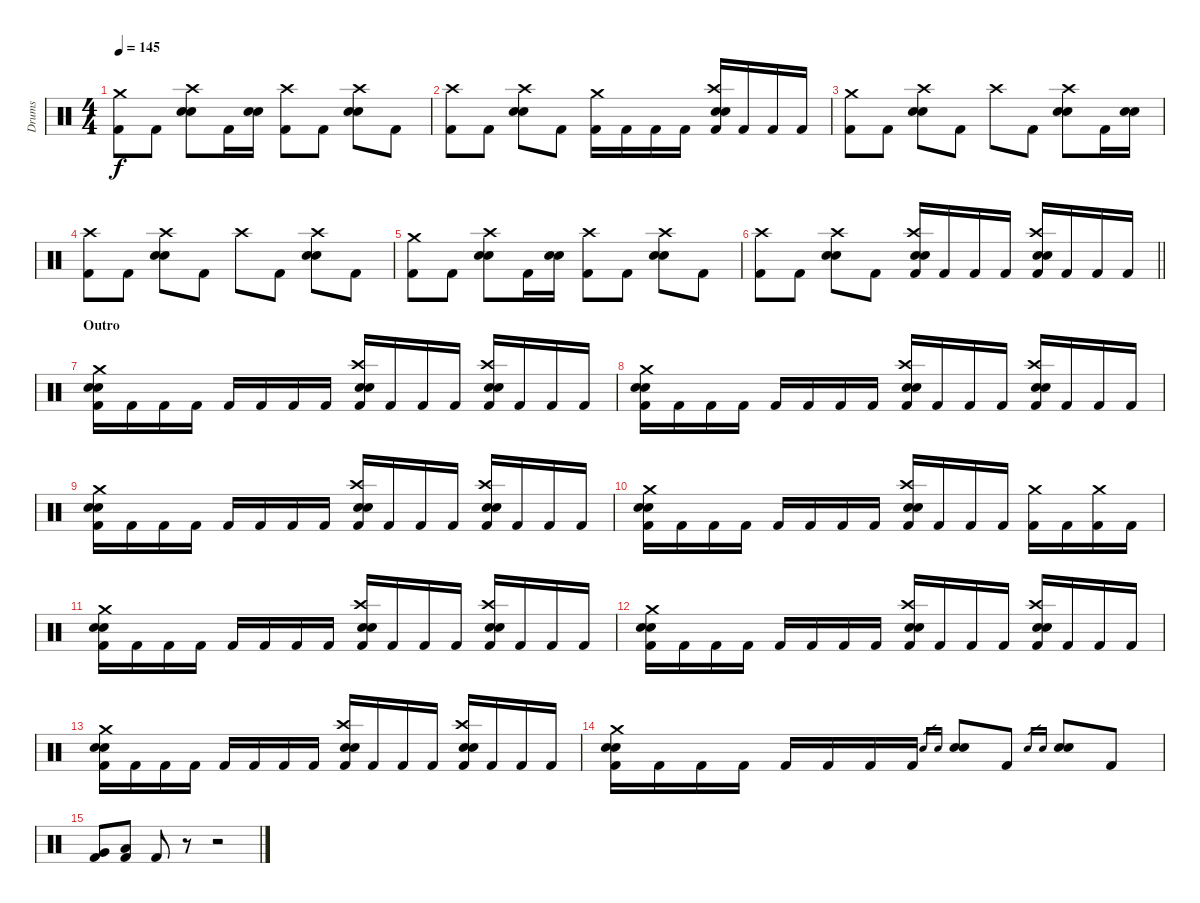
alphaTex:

\track ("Drums" "Drums") {instrument percussion}
\staff {score}
\articulation defaults
\ts (4 4)
\tempo 145
\clef neutral
\ks c
("Crash medium (hit)" "Kick (hit) 2").8{dy f} "Kick (hit) 2".8 ("Crash high (hit)" "Electric Snare (hit)" "Electric Snare (hit)").8 "Kick (hit) 2".16 ("Electric Snare (hit)" "Electric Snare (hit)").16 ("Crash high (hit)" "Kick (hit) 2").8 "Kick (hit) 2".8 ("Crash high (hit)" "Electric Snare (hit)" "Electric Snare (hit)").8 "Kick (hit) 2".8 |
("Crash high (hit)" "Kick (hit) 2").8 "Kick (hit) 2".8 ("Crash high (hit)" "Electric Snare (hit)" "Electric Snare (hit)").8 "Kick (hit) 2".8 ("Crash medium (hit)" "Kick (hit) 2").16 "Kick (hit) 2".16 "Kick (hit) 2".16 "Kick (hit) 2".16 ("Crash high (hit)" "Electric Snare (hit)" "Electric Snare (hit)" "Kick (hit) 2").16 "Kick (hit) 2".16 "Kick (hit) 2".16 "Kick (hit) 2".16 |
("Crash medium (hit)" "Kick (hit) 2").8 "Kick (hit) 2".8 ("Crash high (hit)" "Electric Snare (hit)" "Electric Snare (hit)").8 "Kick (hit) 2".8 "Crash high (hit)".8 "Kick (hit) 2".8 ("Crash high (hit)" "Electric Snare (hit)" "Electric Snare (hit)").8 "Kick (hit) 2".16 ("Electric Snare (hit)" "Electric Snare (hit)").16 |
("Crash high (hit)" "Kick (hit) 2").8 "Kick (hit) 2".8 ("Crash high (hit)" "Electric Snare (hit)" "Electric Snare (hit)").8 "Kick (hit) 2".8 "Crash high (hit)".8 "Kick (hit) 2".8 ("Crash high (hit)" "Electric Snare (hit)" "Electric Snare (hit)").8 "Kick (hit) 2".8 |
("Crash medium (hit)" "Kick (hit) 2").8 "Kick (hit) 2".8 ("Crash high (hit)" "Electric Snare (hit)" "Electric Snare (hit)").8 "Kick (hit) 2".16 ("Electric Snare (hit)" "Electric Snare (hit)").16 ("Crash high (hit)" "Kick (hit) 2").8 "Kick (hit) 2".8 ("Crash high (hit)" "Electric Snare (hit)" "Electric Snare (hit)").8 "Kick (hit) 2".8 |
\barLineRight lightlight
("Crash high (hit)" "Kick (hit) 2").8 "Kick (hit) 2".8 ("Crash high (hit)" "Electric Snare (hit)" "Electric Snare (hit)").8 "Kick (hit) 2".8 ("Crash high (hit)" "Electric Snare (hit)" "Electric Snare (hit)" "Kick (hit) 2").16 "Kick (hit) 2".16 "Kick (hit) 2".16 "Kick (hit) 2".16 ("Crash high (hit)" "Electric Snare (hit)" "Electric Snare (hit)" "Kick (hit) 2").16 "Kick (hit) 2".16 "Kick (hit) 2".16 "Kick (hit) 2".16 |
\section ("" "Outro")
("Crash medium (hit)" "Electric Snare (hit)" "Electric Snare (hit)" "Kick (hit) 2").16 "Kick (hit) 2".16 "Kick (hit) 2".16 "Kick (hit) 2".16 "Kick (hit) 2".16 "Kick (hit) 2".16 "Kick (hit) 2".16 "Kick (hit) 2".16 ("Crash high (hit)" "Electric Snare (hit)" "Electric Snare (hit)" "Kick (hit) 2").16 "Kick (hit) 2".16 "Kick (hit) 2".16 "Kick (hit) 2".16 ("Crash high (hit)" "Electric Snare (hit)" "Electric Snare (hit)" "Kick (hit) 2").16 "Kick (hit) 2".16 "Kick (hit) 2".16 "Kick (hit) 2".16 |
("Crash medium (hit)" "Electric Snare (hit)" "Electric Snare (hit)" "Kick (hit) 2").16 "Kick (hit) 2".16 "Kick (hit) 2".16 "Kick (hit) 2".16 "Kick (hit) 2".16 "Kick (hit) 2".16 "Kick (hit) 2".16 "Kick (hit) 2".16 ("Crash high (hit)" "Electric Snare (hit)" "Electric Snare (hit)" "Kick (hit) 2").16 "Kick (hit) 2".16 "Kick (hit) 2".16 "Kick (hit) 2".16 ("Crash high (hit)" "Electric Snare (hit)" "Electric Snare (hit)" "Kick (hit) 2").16 "Kick (hit) 2".16 "Kick (hit) 2".16 "Kick (hit) 2".16 |
("Crash medium (hit)" "Electric Snare (hit)" "Electric Snare (hit)" "Kick (hit) 2").16 "Kick (hit) 2".16 "Kick (hit) 2".16 "Kick (hit) 2".16 "Kick (hit) 2".16 "Kick (hit) 2".16 "Kick (hit) 2".16 "Kick (hit) 2".16 ("Crash high (hit)" "Electric Snare (hit)" "Electric Snare (hit)" "Kick (hit) 2").16 "Kick (hit) 2".16 "Kick (hit) 2".16 "Kick (hit) 2".16 ("Crash high (hit)" "Electric Snare (hit)" "Electric Snare (hit)" "Kick (hit) 2").16 "Kick (hit) 2".16 "Kick (hit) 2".16 "Kick (hit) 2".16 |
("Crash medium (hit)" "Electric Snare (hit)" "Electric Snare (hit)" "Kick (hit) 2").16 "Kick (hit) 2".16 "Kick (hit) 2".16 "Kick (hit) 2".16 "Kick (hit) 2".16 "Kick (hit) 2".16 "Kick (hit) 2".16 "Kick (hit) 2".16 ("Crash high (hit)" "Electric Snare (hit)" "Electric Snare (hit)" "Kick (hit) 2").16 "Kick (hit) 2".16 "Kick (hit) 2".16 "Kick (hit) 2".16 ("Crash medium (hit)" "Kick (hit) 2").16 "Kick (hit) 2".16 ("Crash medium (hit)" "Kick (hit) 2").16 "Kick (hit) 2".16 |
("Crash medium (hit)" "Electric Snare (hit)" "Electric Snare (hit)" "Kick (hit) 2").16 "Kick (hit) 2".16 "Kick (hit) 2".16 "Kick (hit) 2".16 "Kick (hit) 2".16 "Kick (hit) 2".16 "Kick (hit) 2".16 "Kick (hit) 2".16 ("Crash high (hit)" "Electric Snare (hit)" "Electric Snare (hit)" "Kick (hit) 2").16 "Kick (hit) 2".16 "Kick (hit) 2".16 "Kick (hit) 2".16 ("Crash high (hit)" "Electric Snare (hit)" "Electric Snare (hit)" "Kick (hit) 2").16 "Kick (hit) 2".16 "Kick (hit) 2".16 "Kick (hit) 2".16 |
("Crash medium (hit)" "Electric Snare (hit)" "Electric Snare (hit)" "Kick (hit) 2").16 "Kick (hit) 2".16 "Kick (hit) 2".16 "Kick (hit) 2".16 "Kick (hit) 2".16 "Kick (hit) 2".16 "Kick (hit) 2".16 "Kick (hit) 2".16 ("Crash high (hit)" "Electric Snare (hit)" "Electric Snare (hit)" "Kick (hit) 2").16 "Kick (hit) 2".16 "Kick (hit) 2".16 "Kick (hit) 2".16 ("Crash high (hit)" "Electric Snare (hit)" "Electric Snare (hit)" "Kick (hit) 2").16 "Kick (hit) 2".16 "Kick (hit) 2".16 "Kick (hit) 2".16 |
("Crash medium (hit)" "Electric Snare (hit)" "Electric Snare (hit)" "Kick (hit) 2").16 "Kick (hit) 2".16 "Kick (hit) 2".16 "Kick (hit) 2".16 "Kick (hit) 2".16 "Kick (hit) 2".16 "Kick (hit) 2".16 "Kick (hit) 2".16 ("Crash high (hit)" "Electric Snare (hit)" "Electric Snare (hit)" "Kick (hit) 2").16 "Kick (hit) 2".16 "Kick (hit) 2".16 "Kick (hit) 2".16 ("Crash high (hit)" "Electric Snare (hit)" "Electric Snare (hit)" "Kick (hit) 2").16 "Kick (hit) 2".16 "Kick (hit) 2".16 "Kick (hit) 2".16 |
("Crash medium (hit)" "Electric Snare (hit)" "Electric Snare (hit)" "Kick (hit) 2").16 "Kick (hit) 2".16 "Kick (hit) 2".16 "Kick (hit) 2".16 "Kick (hit) 2".16 "Kick (hit) 2".16 "Kick (hit) 2".16 "Kick (hit) 2".16 "Electric Snare (hit)".16{gr} "Electric Snare (hit)".16{gr} ("Electric Snare (hit)" "Electric Snare (hit)").8 "Kick (hit) 2".8 "Electric Snare (hit)".16{gr} "Electric Snare (hit)".16{gr} ("Electric Snare (hit)" "Electric Snare (hit)").8 "Kick (hit) 2".8 |
("Very Low Tom (hit)" "Kick (hit) 2").8 ("Low Floor Tom (hit)" "Kick (hit) 2").8 "Kick (hit) 2".8 r.8 r.2
